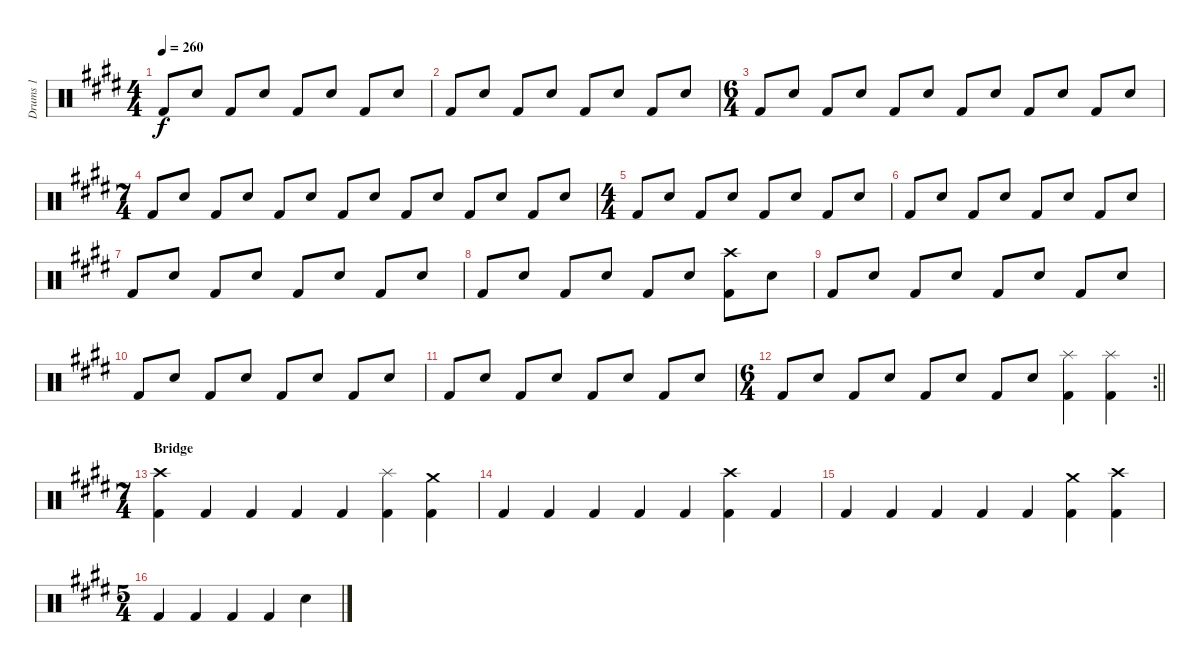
\track ("Drums 1" "Drums 1") {instrument percussion}
\staff {score}
\articulation defaults
\ts (4 4)
\tempo 260
\clef neutral
\ks c#minor "Kick (hit) 2".8{dy f} "Electric Snare (hit)".8 "Kick (hit) 2".8 "Electric Snare (hit)".8 "Kick (hit) 2".8 "Electric Snare (hit)".8 "Kick (hit) 2".8 "Electric Snare (hit)".8
|
"Kick (hit) 2".8 "Electric Snare (hit)".8 "Kick (hit) 2".8 "Electric Snare (hit)".8 "Kick (hit) 2".8 "Electric Snare (hit)".8 "Kick (hit) 2".8 "Electric Snare (hit)".8 |
\ts (6 4)
"Kick (hit) 2".8 "Electric Snare (hit)".8 "Kick (hit) 2".8 "Electric Snare (hit)".8 "Kick (hit) 2".8 "Electric Snare (hit)".8 "Kick (hit) 2".8 "Electric Snare (hit)".8 "Kick (hit) 2".8 "Electric Snare (hit)".8 "Kick (hit) 2".8 "Electric Snare (hit)".8 |
\ts (7 4)
"Kick (hit) 2".8 "Electric Snare (hit)".8 "Kick (hit) 2".8 "Electric Snare (hit)".8 "Kick (hit) 2".8 "Electric Snare (hit)".8 "Kick (hit) 2".8 "Electric Snare (hit)".8 "Kick (hit) 2".8 "Electric Snare (hit)".8 "Kick (hit) 2".8 "Electric Snare (hit)".8 "Kick (hit) 2".8 "Electric Snare (hit)".8 |
\ts (4 4)
"Kick (hit) 2".8 "Electric Snare (hit)".8 "Kick (hit) 2".8 "Electric Snare (hit)".8 "Kick (hit) 2".8 "Electric Snare (hit)".8 "Kick (hit) 2".8 "Electric Snare (hit)".8 |
"Kick (hit) 2".8 "Electric Snare (hit)".8 "Kick (hit) 2".8 "Electric Snare (hit)".8 "Kick (hit) 2".8 "Electric Snare (hit)".8 "Kick (hit) 2".8 "Electric Snare (hit)".8 |
"Kick (hit) 2".8 "Electric Snare (hit)".8 "Kick (hit) 2".8 "Electric Snare (hit)".8 "Kick (hit) 2".8 "Electric Snare (hit)".8 "Kick (hit) 2".8 "Electric Snare (hit)".8 |
"Kick (hit) 2".8 "Electric Snare (hit)".8 "Kick (hit) 2".8 "Electric Snare (hit)".8 "Kick (hit) 2".8 "Electric Snare (hit)".8 ("Crash high (hit)" "Kick (hit) 2").8 "Electric Snare (hit)".8 |
"Kick (hit) 2".8 "Electric Snare (hit)".8 "Kick (hit) 2".8 "Electric Snare (hit)".8 "Kick (hit) 2".8 "Electric Snare (hit)".8 "Kick (hit) 2".8 "Electric Snare (hit)".8 |
"Kick (hit) 2".8 "Electric Snare (hit)".8 "Kick (hit) 2".8 "Electric Snare (hit)".8 "Kick (hit) 2".8 "Electric Snare (hit)".8 "Kick (hit) 2".8 "Electric Snare (hit)".8 |
"Kick (hit) 2".8 "Electric Snare (hit)".8 "Kick (hit) 2".8 "Electric Snare (hit)".8 "Kick (hit) 2".8 "Electric Snare (hit)".8 "Kick (hit) 2".8 "Electric Snare (hit)".8 |
\rc 2
\ts (6 4)
\barLineRight lightlight "Kick (hit) 2".8 "Electric Snare (hit)".8 "Kick (hit) 2".8 "Electric Snare (hit)".8 "Kick (hit) 2".8 "Electric Snare (hit)".8 "Kick (hit) 2".8 "Electric Snare (hit)".8
("Splash (hit)" "Kick (hit) 2").4 ("Splash (hit)" "Kick (hit) 2").4 |
\ts (7 4)
\section ("" "Bridge")
("Crash high (hit)" "Kick (hit) 2").4 "Kick (hit) 2".4 "Kick (hit) 2".4 "Kick (hit) 2".4 "Kick (hit) 2".4 ("Splash (hit)" "Kick (hit) 2").4 ("Crash medium (hit)" "Kick (hit) 2").4 |
"Kick (hit) 2".4 "Kick (hit) 2".4 "Kick (hit) 2".4 "Kick (hit) 2".4 "Kick (hit) 2".4 ("Crash high (hit)" "Kick (hit) 2").4 "Kick (hit) 2".4 |
"Kick (hit) 2".4 "Kick (hit) 2".4 "Kick (hit) 2".4 "Kick (hit) 2".4 "Kick (hit) 2".4 ("Crash medium (hit)" "Kick (hit) 2").4 ("Crash high (hit)" "Kick (hit) 2").4 |
\ts (5 4)
"Kick (hit) 2".4 "Kick (hit) 2".4 "Kick (hit) 2".4 "Kick (hit) 2".4 "Electric Snare (hit)".4
